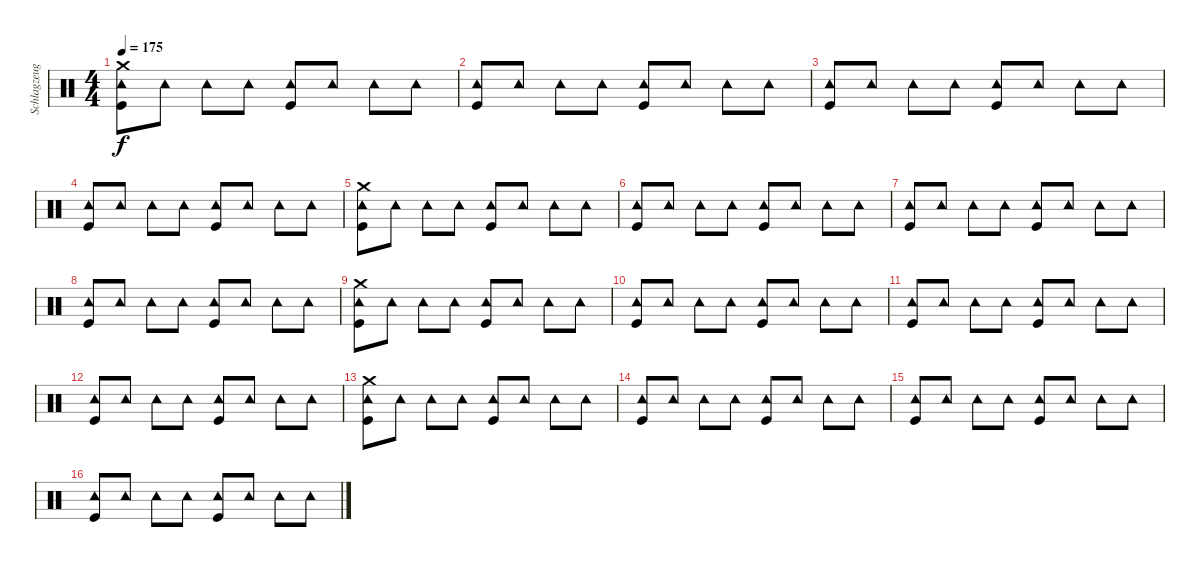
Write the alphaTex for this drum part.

\track ("Schlagzeug - Bela B." "Schlagzeug") {instrument percussion}
\staff {score}
\articulation defaults
\ts (4 4)
\tempo 175
\clef neutral
\ks c
("Tambourine (hit)" "Kick (hit)" "Crash medium (hit)").8{dy f} "Tambourine (hit)".8 "Tambourine (hit)".8 "Tambourine (hit)".8 ("Tambourine (hit)" "Kick (hit)").8 "Tambourine (hit)".8 "Tambourine (hit)".8 "Tambourine (hit)".8 |
("Tambourine (hit)" "Kick (hit)").8 "Tambourine (hit)".8 "Tambourine (hit)".8 "Tambourine (hit)".8 ("Tambourine (hit)" "Kick (hit)").8 "Tambourine (hit)".8 "Tambourine (hit)".8 "Tambourine (hit)".8 |
("Tambourine (hit)" "Kick (hit)").8 "Tambourine (hit)".8 "Tambourine (hit)".8 "Tambourine (hit)".8 ("Tambourine (hit)" "Kick (hit)").8 "Tambourine (hit)".8 "Tambourine (hit)".8 "Tambourine (hit)".8 |
("Tambourine (hit)" "Kick (hit)").8 "Tambourine (hit)".8 "Tambourine (hit)".8 "Tambourine (hit)".8 ("Tambourine (hit)" "Kick (hit)").8 "Tambourine (hit)".8 "Tambourine (hit)".8 "Tambourine (hit)".8 |
("Tambourine (hit)" "Kick (hit)" "Crash medium (hit)").8 "Tambourine (hit)".8 "Tambourine (hit)".8 "Tambourine (hit)".8 ("Tambourine (hit)" "Kick (hit)").8 "Tambourine (hit)".8 "Tambourine (hit)".8 "Tambourine (hit)".8 |
("Tambourine (hit)" "Kick (hit)").8 "Tambourine (hit)".8 "Tambourine (hit)".8 "Tambourine (hit)".8 ("Tambourine (hit)" "Kick (hit)").8 "Tambourine (hit)".8 "Tambourine (hit)".8 "Tambourine (hit)".8 |
("Tambourine (hit)" "Kick (hit)").8 "Tambourine (hit)".8 "Tambourine (hit)".8 "Tambourine (hit)".8 ("Tambourine (hit)" "Kick (hit)").8 "Tambourine (hit)".8 "Tambourine (hit)".8 "Tambourine (hit)".8 |
("Tambourine (hit)" "Kick (hit)").8 "Tambourine (hit)".8 "Tambourine (hit)".8 "Tambourine (hit)".8 ("Tambourine (hit)" "Kick (hit)").8 "Tambourine (hit)".8 "Tambourine (hit)".8 "Tambourine (hit)".8 |
("Tambourine (hit)" "Kick (hit)" "Crash medium (hit)").8 "Tambourine (hit)".8 "Tambourine (hit)".8 "Tambourine (hit)".8 ("Tambourine (hit)" "Kick (hit)").8 "Tambourine (hit)".8 "Tambourine (hit)".8 "Tambourine (hit)".8 |
("Tambourine (hit)" "Kick (hit)").8 "Tambourine (hit)".8 "Tambourine (hit)".8 "Tambourine (hit)".8 ("Tambourine (hit)" "Kick (hit)").8 "Tambourine (hit)".8 "Tambourine (hit)".8 "Tambourine (hit)".8 |
("Tambourine (hit)" "Kick (hit)").8 "Tambourine (hit)".8 "Tambourine (hit)".8 "Tambourine (hit)".8 ("Tambourine (hit)" "Kick (hit)").8 "Tambourine (hit)".8 "Tambourine (hit)".8 "Tambourine (hit)".8 |
("Tambourine (hit)" "Kick (hit)").8 "Tambourine (hit)".8 "Tambourine (hit)".8 "Tambourine (hit)".8 ("Tambourine (hit)" "Kick (hit)").8 "Tambourine (hit)".8 "Tambourine (hit)".8 "Tambourine (hit)".8 |
("Tambourine (hit)" "Kick (hit)" "Crash medium (hit)").8 "Tambourine (hit)".8 "Tambourine (hit)".8 "Tambourine (hit)".8 ("Tambourine (hit)" "Kick (hit)").8 "Tambourine (hit)".8 "Tambourine (hit)".8 "Tambourine (hit)".8 |
("Tambourine (hit)" "Kick (hit)").8 "Tambourine (hit)".8 "Tambourine (hit)".8 "Tambourine (hit)".8 ("Tambourine (hit)" "Kick (hit)").8 "Tambourine (hit)".8 "Tambourine (hit)".8 "Tambourine (hit)".8 |
("Tambourine (hit)" "Kick (hit)").8 "Tambourine (hit)".8 "Tambourine (hit)".8 "Tambourine (hit)".8 ("Tambourine (hit)" "Kick (hit)").8 "Tambourine (hit)".8 "Tambourine (hit)".8 "Tambourine (hit)".8 |
("Tambourine (hit)" "Kick (hit)").8 "Tambourine (hit)".8 "Tambourine (hit)".8 "Tambourine (hit)".8 ("Tambourine (hit)" "Kick (hit)").8 "Tambourine (hit)".8 "Tambourine (hit)".8 "Tambourine (hit)".8
